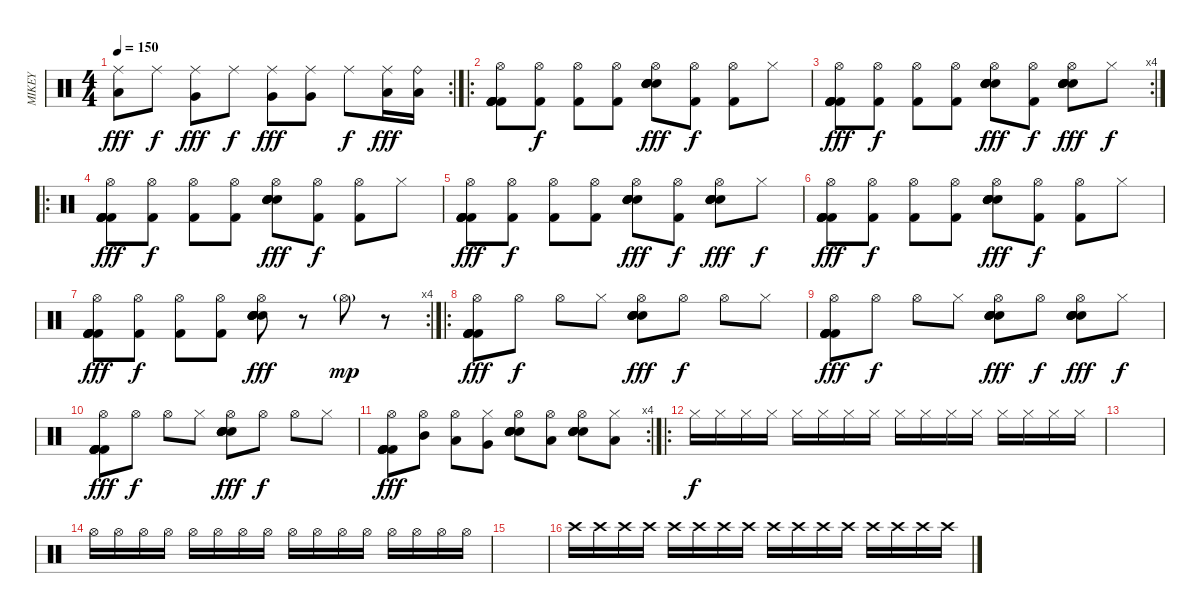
\track ("MIKEY" "MIKEY") {instrument percussion}
\staff {score}
\articulation defaults
\rc 2
\ts (4 4)
\tempo 150
\clef neutral
\ks c
("Low Tom (hit)" "Ride (middle)").8{dy fff} "Ride (middle)".8{dy f} ("Very Low Tom (hit)" "Ride (middle)").8{dy fff} "Ride (middle)".8{dy f} ("Very Low Tom (hit)" "Ride (middle)").8{dy fff} ("Very Low Tom (hit)" "Ride (middle)").8 "Ride (middle)".8{dy f} ("Low Floor Tom (hit)" "Ride (middle)").16{dy fff} ("Low Floor Tom (hit)" "Ride (bell)").16 |
\ro
("Kick (hit) 2" "Kick (hit) 2" "Kick (hit) 2" "Kick (hit) 2" "Kick (hit) 2" "Hi-Hat (open)").8 ("Kick (hit) 2" "Hi-Hat (open)").8{dy f} ("Kick (hit) 2" "Hi-Hat (open)").8 ("Kick (hit) 2" "Hi-Hat (open)").8 ("Electric Snare (hit)" "Electric Snare (hit)" "Electric Snare (hit)" "Electric Snare (hit)" "Electric Snare (hit)" "Hi-Hat (open)").8{dy fff} ("Kick (hit) 2" "Hi-Hat (open)").8{dy f} ("Kick (hit) 2" "Hi-Hat (open)").8 "Hi-Hat (closed)".8 |
\rc 4
("Kick (hit) 2" "Kick (hit) 2" "Kick (hit) 2" "Kick (hit) 2" "Kick (hit) 2" "Hi-Hat (open)").8{dy fff} ("Kick (hit) 2" "Hi-Hat (open)").8{dy f} ("Kick (hit) 2" "Hi-Hat (open)").8 ("Kick (hit) 2" "Hi-Hat (open)").8 ("Electric Snare (hit)" "Electric Snare (hit)" "Electric Snare (hit)" "Electric Snare (hit)" "Electric Snare (hit)" "Hi-Hat (open)").8{dy fff} ("Kick (hit) 2" "Hi-Hat (open)").8{dy f} ("Electric Snare (hit)" "Electric Snare (hit)" "Electric Snare (hit)" "Electric Snare (hit)" "Electric Snare (hit)" "Hi-Hat (open)").8{dy fff} "Hi-Hat (closed)".8{dy f} |
\ro
("Kick (hit) 2" "Kick (hit) 2" "Kick (hit) 2" "Kick (hit) 2" "Kick (hit) 2" "Hi-Hat (open)").8{dy fff} ("Kick (hit) 2" "Hi-Hat (open)").8{dy f} ("Kick (hit) 2" "Hi-Hat (open)").8 ("Kick (hit) 2" "Hi-Hat (open)").8 ("Electric Snare (hit)" "Electric Snare (hit)" "Electric Snare (hit)" "Electric Snare (hit)" "Electric Snare (hit)" "Hi-Hat (open)").8{dy fff} ("Kick (hit) 2" "Hi-Hat (open)").8{dy f} ("Kick (hit) 2" "Hi-Hat (open)").8 "Hi-Hat (closed)".8 |
("Kick (hit) 2" "Kick (hit) 2" "Kick (hit) 2" "Kick (hit) 2" "Kick (hit) 2" "Hi-Hat (open)").8{dy fff} ("Kick (hit) 2" "Hi-Hat (open)").8{dy f} ("Kick (hit) 2" "Hi-Hat (open)").8 ("Kick (hit) 2" "Hi-Hat (open)").8 ("Electric Snare (hit)" "Electric Snare (hit)" "Electric Snare (hit)" "Electric Snare (hit)" "Electric Snare (hit)" "Hi-Hat (open)").8{dy fff} ("Kick (hit) 2" "Hi-Hat (open)").8{dy f} ("Electric Snare (hit)" "Electric Snare (hit)" "Electric Snare (hit)" "Electric Snare (hit)" "Electric Snare (hit)" "Hi-Hat (open)").8{dy fff} "Hi-Hat (closed)".8{dy f} |
("Kick (hit) 2" "Kick (hit) 2" "Kick (hit) 2" "Kick (hit) 2" "Kick (hit) 2" "Hi-Hat (open)").8{dy fff} ("Kick (hit) 2" "Hi-Hat (open)").8{dy f} ("Kick (hit) 2" "Hi-Hat (open)").8 ("Kick (hit) 2" "Hi-Hat (open)").8 ("Electric Snare (hit)" "Electric Snare (hit)" "Electric Snare (hit)" "Electric Snare (hit)" "Electric Snare (hit)" "Hi-Hat (open)").8{dy fff} ("Kick (hit) 2" "Hi-Hat (open)").8{dy f} ("Kick (hit) 2" "Hi-Hat (open)").8 "Hi-Hat (closed)".8 |
\rc 4
("Kick (hit) 2" "Kick (hit) 2" "Kick (hit) 2" "Kick (hit) 2" "Kick (hit) 2" "Hi-Hat (open)").8{dy fff} ("Kick (hit) 2" "Hi-Hat (open)").8{dy f} ("Kick (hit) 2" "Hi-Hat (open)").8 ("Kick (hit) 2" "Hi-Hat (open)").8 ("Electric Snare (hit)" "Electric Snare (hit)" "Electric Snare (hit)" "Electric Snare (hit)" "Electric Snare (hit)" "Hi-Hat (open)").8{dy fff} r.8 "Hi-Hat (open)"{g}.8{dy mp} r.8 |
\ro
("Kick (hit) 2" "Kick (hit) 2" "Kick (hit) 2" "Kick (hit) 2" "Kick (hit) 2" "Hi-Hat (open)").8{dy fff} "Hi-Hat (open)".8{dy f} "Hi-Hat (open)".8 "Hi-Hat (closed)".8 ("Electric Snare (hit)" "Electric Snare (hit)" "Electric Snare (hit)" "Electric Snare (hit)" "Electric Snare (hit)" "Hi-Hat (open)").8{dy fff} "Hi-Hat (open)".8{dy f} "Hi-Hat (open)".8 "Hi-Hat (closed)".8 |
("Kick (hit) 2" "Kick (hit) 2" "Kick (hit) 2" "Kick (hit) 2" "Kick (hit) 2" "Hi-Hat (open)").8{dy fff} "Hi-Hat (open)".8{dy f} "Hi-Hat (open)".8 "Hi-Hat (closed)".8 ("Electric Snare (hit)" "Electric Snare (hit)" "Electric Snare (hit)" "Electric Snare (hit)" "Electric Snare (hit)" "Hi-Hat (open)").8{dy fff} "Hi-Hat (open)".8{dy f} ("Electric Snare (hit)" "Electric Snare (hit)" "Electric Snare (hit)" "Electric Snare (hit)" "Electric Snare (hit)" "Hi-Hat (open)").8{dy fff} "Hi-Hat (closed)".8{dy f} |
("Kick (hit) 2" "Kick (hit) 2" "Kick (hit) 2" "Kick (hit) 2" "Kick (hit) 2" "Hi-Hat (open)").8{dy fff} "Hi-Hat (open)".8{dy f} "Hi-Hat (open)".8 "Hi-Hat (closed)".8 ("Electric Snare (hit)" "Electric Snare (hit)" "Electric Snare (hit)" "Electric Snare (hit)" "Electric Snare (hit)" "Hi-Hat (open)").8{dy fff} "Hi-Hat (open)".8{dy f} "Hi-Hat (open)".8 "Hi-Hat (closed)".8 |
\rc 4
("Kick (hit) 2" "Kick (hit) 2" "Kick (hit) 2" "Kick (hit) 2" "Kick (hit) 2" "Hi-Hat (open)").8{dy fff} ("Mid Tom (hit)" "Hi-Hat (open)").8 ("Low Tom (hit)" "Hi-Hat (open)").8 ("Very Low Tom (hit)" "Hi-Hat (closed)").8 ("Electric Snare (hit)" "Electric Snare (hit)" "Electric Snare (hit)" "Electric Snare (hit)" "Electric Snare (hit)" "Hi-Hat (open)").8 ("Low Floor Tom (hit)" "Hi-Hat (open)").8 ("Electric Snare (hit)" "Electric Snare (hit)" "Electric Snare (hit)" "Electric Snare (hit)" "Electric Snare (hit)" "Hi-Hat (open)").8 ("Low Floor Tom (hit)" "Hi-Hat (closed)").8 |
\ro "Hi-Hat (closed)".16{dy f} "Hi-Hat (closed)".16 "Hi-Hat (closed)".16 "Hi-Hat (closed)".16 "Hi-Hat (closed)".16 "Hi-Hat (closed)".16 "Hi-Hat (closed)".16 "Hi-Hat (closed)".16 "Hi-Hat (closed)".16 "Hi-Hat (closed)".16 "Hi-Hat (closed)".16 "Hi-Hat (closed)".16 "Hi-Hat (closed)".16 "Hi-Hat (closed)".16 "Hi-Hat (closed)".16 "Hi-Hat (closed)".16
|
|
"Hi-Hat (open)".16 "Hi-Hat (open)".16 "Hi-Hat (open)".16 "Hi-Hat (open)".16 "Hi-Hat (open)".16 "Hi-Hat (open)".16 "Hi-Hat (open)".16 "Hi-Hat (open)".16 "Hi-Hat (open)".16 "Hi-Hat (open)".16 "Hi-Hat (open)".16 "Hi-Hat (open)".16 "Hi-Hat (open)".16 "Hi-Hat (open)".16 "Hi-Hat (open)".16 "Hi-Hat (open)".16 |
|
"Crash high (hit)".16 "Crash high (hit)".16 "Crash high (hit)".16 "Crash high (hit)".16 "Crash high (hit)".16 "Crash high (hit)".16 "Crash high (hit)".16 "Crash high (hit)".16 "Crash high (hit)".16 "Crash high (hit)".16 "Crash high (hit)".16 "Crash high (hit)".16 "Crash high (hit)".16 "Crash high (hit)".16 "Crash high (hit)".16 "Crash high (hit)".16
